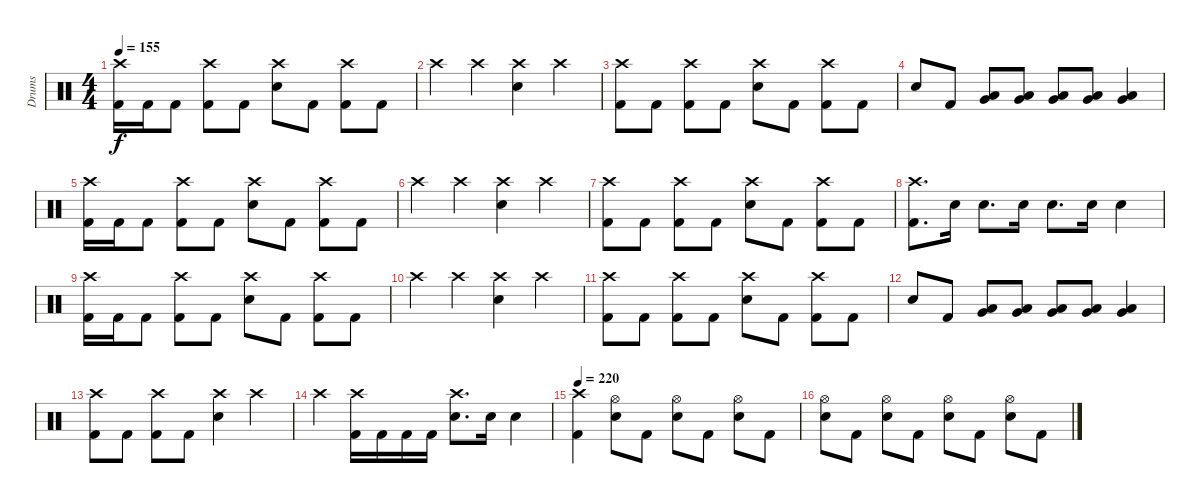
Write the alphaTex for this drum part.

\track ("Drums" "Drums") {instrument percussion}
\staff {score}
\articulation defaults
\ts (4 4)
\tempo 155
\clef neutral
\ks c
("Crash high (hit)" "Kick (hit) 2").16{dy f} "Kick (hit) 2".16 "Kick (hit) 2".8 ("Crash high (hit)" "Kick (hit) 2").8 "Kick (hit) 2".8 ("Crash high (hit)" "Electric Snare (hit)").8 "Kick (hit) 2".8 ("Crash high (hit)" "Kick (hit) 2").8 "Kick (hit) 2".8 |
"Crash high (hit)".4 "Crash high (hit)".4 ("Crash high (hit)" "Electric Snare (hit)").4 "Crash high (hit)".4 |
("Crash high (hit)" "Kick (hit) 2").8 "Kick (hit) 2".8 ("Crash high (hit)" "Kick (hit) 2").8 "Kick (hit) 2".8 ("Crash high (hit)" "Electric Snare (hit)").8 "Kick (hit) 2".8 ("Crash high (hit)" "Kick (hit) 2").8 "Kick (hit) 2".8 |
"Electric Snare (hit)".8 "Kick (hit) 2".8 ("Very Low Tom (hit)" "Low Tom (hit)").8 ("Very Low Tom (hit)" "Low Tom (hit)").8 ("Very Low Tom (hit)" "Low Tom (hit)").8 ("Very Low Tom (hit)" "Low Tom (hit)").8 ("Very Low Tom (hit)" "Low Tom (hit)").4 |
("Crash high (hit)" "Kick (hit) 2").16 "Kick (hit) 2".16 "Kick (hit) 2".8 ("Crash high (hit)" "Kick (hit) 2").8 "Kick (hit) 2".8 ("Crash high (hit)" "Electric Snare (hit)").8 "Kick (hit) 2".8 ("Crash high (hit)" "Kick (hit) 2").8 "Kick (hit) 2".8 |
"Crash high (hit)".4 "Crash high (hit)".4 ("Crash high (hit)" "Electric Snare (hit)").4 "Crash high (hit)".4 |
("Crash high (hit)" "Kick (hit) 2").8 "Kick (hit) 2".8 ("Crash high (hit)" "Kick (hit) 2").8 "Kick (hit) 2".8 ("Crash high (hit)" "Electric Snare (hit)").8 "Kick (hit) 2".8 ("Crash high (hit)" "Kick (hit) 2").8 "Kick (hit) 2".8 |
("Crash high (hit)" "Kick (hit) 2").8{d} "Electric Snare (hit)".16 "Electric Snare (hit)".8{d} "Electric Snare (hit)".16 "Electric Snare (hit)".8{d} "Electric Snare (hit)".16 "Electric Snare (hit)".4 |
("Crash high (hit)" "Kick (hit) 2").16 "Kick (hit) 2".16 "Kick (hit) 2".8 ("Crash high (hit)" "Kick (hit) 2").8 "Kick (hit) 2".8 ("Crash high (hit)" "Electric Snare (hit)").8 "Kick (hit) 2".8 ("Crash high (hit)" "Kick (hit) 2").8 "Kick (hit) 2".8 |
"Crash high (hit)".4 "Crash high (hit)".4 ("Crash high (hit)" "Electric Snare (hit)").4 "Crash high (hit)".4 |
("Crash high (hit)" "Kick (hit) 2").8 "Kick (hit) 2".8 ("Crash high (hit)" "Kick (hit) 2").8 "Kick (hit) 2".8 ("Crash high (hit)" "Electric Snare (hit)").8 "Kick (hit) 2".8 ("Crash high (hit)" "Kick (hit) 2").8 "Kick (hit) 2".8 |
"Electric Snare (hit)".8 "Kick (hit) 2".8 ("Very Low Tom (hit)" "Low Tom (hit)").8 ("Very Low Tom (hit)" "Low Tom (hit)").8 ("Very Low Tom (hit)" "Low Tom (hit)").8 ("Very Low Tom (hit)" "Low Tom (hit)").8 ("Very Low Tom (hit)" "Low Tom (hit)").4 |
("Crash high (hit)" "Kick (hit) 2").8 "Kick (hit) 2".8 ("Crash high (hit)" "Kick (hit) 2").8 "Kick (hit) 2".8 ("Crash high (hit)" "Electric Snare (hit)").4 "Crash high (hit)".4 |
"Crash high (hit)".4 ("Crash high (hit)" "Kick (hit) 2").16 "Kick (hit) 2".16 "Kick (hit) 2".16 "Kick (hit) 2".16 ("Crash high (hit)" "Electric Snare (hit)").8{d} "Electric Snare (hit)".16 "Electric Snare (hit)".4 |
\tempo 220
("Crash high (hit)" "Kick (hit) 2").4 ("Hi-Hat (open)" "Electric Snare (hit)").8 "Kick (hit) 2".8 ("Hi-Hat (open)" "Electric Snare (hit)").8 "Kick (hit) 2".8 ("Hi-Hat (open)" "Electric Snare (hit)").8 "Kick (hit) 2".8 |
("Hi-Hat (open)" "Electric Snare (hit)").8 "Kick (hit) 2".8 ("Hi-Hat (open)" "Electric Snare (hit)").8 "Kick (hit) 2".8 ("Hi-Hat (open)" "Electric Snare (hit)").8 "Kick (hit) 2".8 ("Hi-Hat (open)" "Electric Snare (hit)").8 "Kick (hit) 2".8
